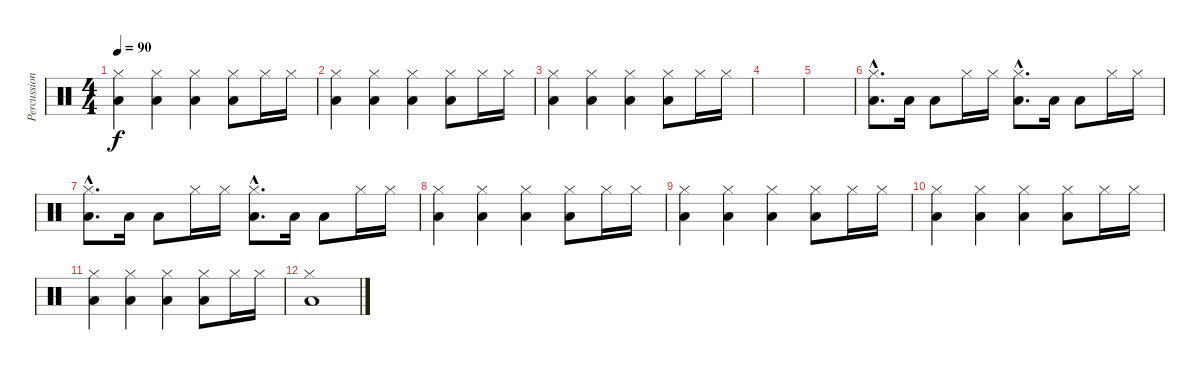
\track ("Percussions" "Percussion") {instrument percussion}
\staff {score}
\articulation defaults
\ts (4 4)
\tempo 90
\clef neutral
\ks c
("Hi-Hat (closed)" "Low Floor Tom (hit)").4{dy f} ("Hi-Hat (closed)" "Low Floor Tom (hit)").4 ("Hi-Hat (closed)" "Low Floor Tom (hit)").4 ("Hi-Hat (closed)" "Low Floor Tom (hit)").8 "Hi-Hat (closed)".16 "Hi-Hat (closed)".16 |
("Hi-Hat (closed)" "Low Floor Tom (hit)").4 ("Hi-Hat (closed)" "Low Floor Tom (hit)").4 ("Hi-Hat (closed)" "Low Floor Tom (hit)").4 ("Hi-Hat (closed)" "Low Floor Tom (hit)").8 "Hi-Hat (closed)".16 "Hi-Hat (closed)".16 |
("Hi-Hat (closed)" "Low Floor Tom (hit)").4 ("Hi-Hat (closed)" "Low Floor Tom (hit)").4 ("Hi-Hat (closed)" "Low Floor Tom (hit)").4 ("Hi-Hat (closed)" "Low Floor Tom (hit)").8 "Hi-Hat (closed)".16 "Hi-Hat (closed)".16 |
|
|
("Hi-Hat (closed)"{hac} "Low Floor Tom (hit)"{hac}).8{d} "Low Floor Tom (hit)".16 "Low Floor Tom (hit)".8 "Hi-Hat (closed)".16 "Hi-Hat (closed)".16 ("Hi-Hat (closed)"{hac} "Low Floor Tom (hit)"{hac}).8{d} "Low Floor Tom (hit)".16 "Low Floor Tom (hit)".8 "Hi-Hat (closed)".16 "Hi-Hat (closed)".16 |
("Hi-Hat (closed)"{hac} "Low Floor Tom (hit)"{hac}).8{d} "Low Floor Tom (hit)".16 "Low Floor Tom (hit)".8 "Hi-Hat (closed)".16 "Hi-Hat (closed)".16 ("Hi-Hat (closed)"{hac} "Low Floor Tom (hit)"{hac}).8{d} "Low Floor Tom (hit)".16 "Low Floor Tom (hit)".8 "Hi-Hat (closed)".16 "Hi-Hat (closed)".16 |
("Hi-Hat (closed)" "Low Floor Tom (hit)").4 ("Hi-Hat (closed)" "Low Floor Tom (hit)").4 ("Hi-Hat (closed)" "Low Floor Tom (hit)").4 ("Hi-Hat (closed)" "Low Floor Tom (hit)").8 "Hi-Hat (closed)".16 "Hi-Hat (closed)".16 |
("Hi-Hat (closed)" "Low Floor Tom (hit)").4 ("Hi-Hat (closed)" "Low Floor Tom (hit)").4 ("Hi-Hat (closed)" "Low Floor Tom (hit)").4 ("Hi-Hat (closed)" "Low Floor Tom (hit)").8 "Hi-Hat (closed)".16 "Hi-Hat (closed)".16 |
("Hi-Hat (closed)" "Low Floor Tom (hit)").4 ("Hi-Hat (closed)" "Low Floor Tom (hit)").4 ("Hi-Hat (closed)" "Low Floor Tom (hit)").4 ("Hi-Hat (closed)" "Low Floor Tom (hit)").8 "Hi-Hat (closed)".16 "Hi-Hat (closed)".16 |
("Hi-Hat (closed)" "Low Floor Tom (hit)").4 ("Hi-Hat (closed)" "Low Floor Tom (hit)").4 ("Hi-Hat (closed)" "Low Floor Tom (hit)").4 ("Hi-Hat (closed)" "Low Floor Tom (hit)").8 "Hi-Hat (closed)".16 "Hi-Hat (closed)".16 |
("Hi-Hat (closed)" "Low Floor Tom (hit)").1
